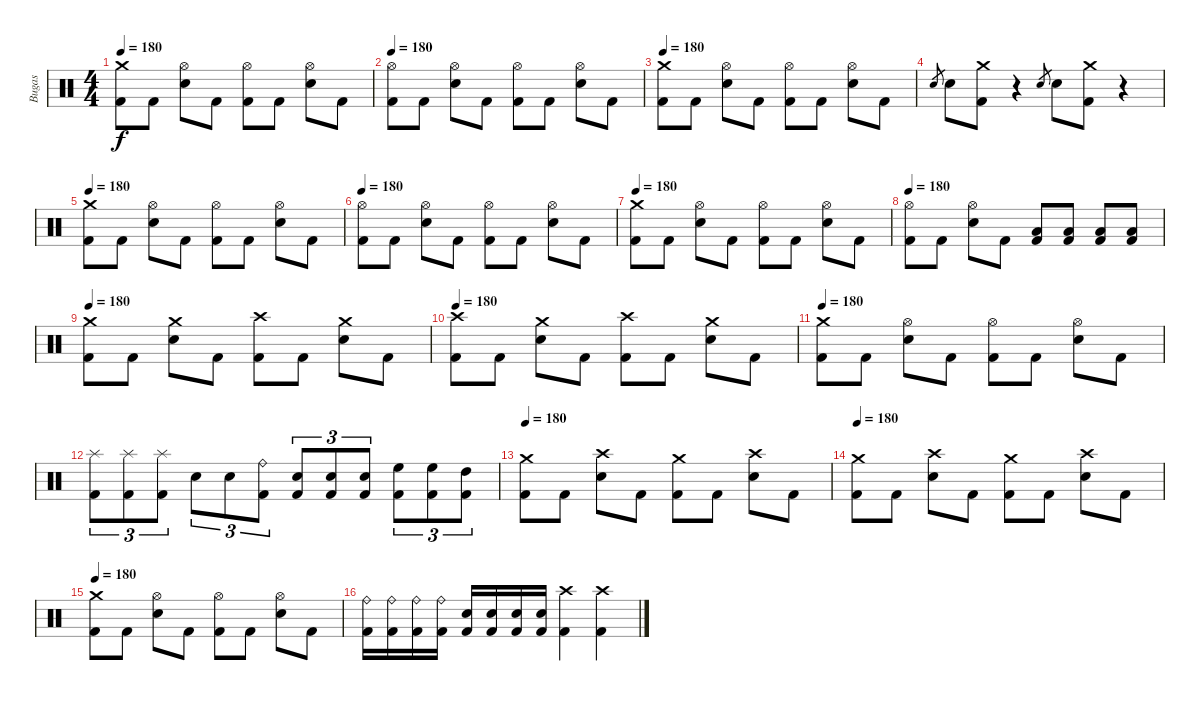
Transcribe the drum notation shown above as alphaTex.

\track ("Bugas" "Bugas") {instrument percussion}
\staff {score}
\articulation defaults
\ts (4 4)
\tempo 180
\clef neutral
\ks c
("Crash medium (hit)" "Kick (hit) 2").8{dy f} "Kick (hit) 2".8 ("Hi-Hat (open)" "Electric Snare (hit)").8 "Kick (hit) 2".8 ("Hi-Hat (open)" "Kick (hit) 2").8 "Kick (hit) 2".8 ("Hi-Hat (open)" "Electric Snare (hit)").8 "Kick (hit) 2".8 |
\tempo 180
("Hi-Hat (open)" "Kick (hit) 2").8 "Kick (hit) 2".8 ("Hi-Hat (open)" "Electric Snare (hit)").8 "Kick (hit) 2".8 ("Hi-Hat (open)" "Kick (hit) 2").8 "Kick (hit) 2".8 ("Hi-Hat (open)" "Electric Snare (hit)").8 "Kick (hit) 2".8 |
\tempo 180
("Crash medium (hit)" "Kick (hit) 2").8 "Kick (hit) 2".8 ("Hi-Hat (open)" "Electric Snare (hit)").8 "Kick (hit) 2".8 ("Hi-Hat (open)" "Kick (hit) 2").8 "Kick (hit) 2".8 ("Hi-Hat (open)" "Electric Snare (hit)").8 "Kick (hit) 2".8 |
"Electric Snare (hit)".8{gr} "Electric Snare (hit)".8 ("Crash medium (hit)" "Kick (hit) 2").8 r.4 "Electric Snare (hit)".8{gr} "Electric Snare (hit)".8 ("Crash medium (hit)" "Kick (hit) 2").8 r.4 |
\tempo 180
("Crash medium (hit)" "Kick (hit) 2").8 "Kick (hit) 2".8 ("Hi-Hat (open)" "Electric Snare (hit)").8 "Kick (hit) 2".8 ("Hi-Hat (open)" "Kick (hit) 2").8 "Kick (hit) 2".8 ("Hi-Hat (open)" "Electric Snare (hit)").8 "Kick (hit) 2".8 |
\tempo 180
("Hi-Hat (open)" "Kick (hit) 2").8 "Kick (hit) 2".8 ("Hi-Hat (open)" "Electric Snare (hit)").8 "Kick (hit) 2".8 ("Hi-Hat (open)" "Kick (hit) 2").8 "Kick (hit) 2".8 ("Hi-Hat (open)" "Electric Snare (hit)").8 "Kick (hit) 2".8 |
\tempo 180
("Crash medium (hit)" "Kick (hit) 2").8 "Kick (hit) 2".8 ("Hi-Hat (open)" "Electric Snare (hit)").8 "Kick (hit) 2".8 ("Hi-Hat (open)" "Kick (hit) 2").8 "Kick (hit) 2".8 ("Hi-Hat (open)" "Electric Snare (hit)").8 "Kick (hit) 2".8 |
\tempo 180
("Hi-Hat (open)" "Kick (hit) 2").8 "Kick (hit) 2".8 ("Hi-Hat (open)" "Electric Snare (hit)").8 "Kick (hit) 2".8 ("Low Tom (hit)" "Kick (hit) 2").8 ("Low Tom (hit)" "Kick (hit) 2").8 ("Low Tom (hit)" "Kick (hit) 2").8 ("Low Tom (hit)" "Kick (hit) 2").8 |
\tempo 180
("Crash medium (hit)" "Kick (hit) 2").8 "Kick (hit) 2".8 ("Crash medium (hit)" "Electric Snare (hit)").8 "Kick (hit) 2".8 ("Crash high (hit)" "Kick (hit) 2").8 "Kick (hit) 2".8 ("Crash medium (hit)" "Electric Snare (hit)").8 "Kick (hit) 2".8 |
\tempo 180
("Crash high (hit)" "Kick (hit) 2").8 "Kick (hit) 2".8 ("Crash medium (hit)" "Electric Snare (hit)").8 "Kick (hit) 2".8 ("Crash high (hit)" "Kick (hit) 2").8 "Kick (hit) 2".8 ("Crash medium (hit)" "Electric Snare (hit)").8 "Kick (hit) 2".8 |
\tempo 180
("Crash medium (hit)" "Kick (hit) 2").8 "Kick (hit) 2".8 ("Hi-Hat (open)" "Electric Snare (hit)").8 "Kick (hit) 2".8 ("Hi-Hat (open)" "Kick (hit) 2").8 "Kick (hit) 2".8 ("Hi-Hat (open)" "Electric Snare (hit)").8 "Kick (hit) 2".8 |
("Splash (hit)" "Kick (hit) 2").8{tu (3 2)} ("Splash (hit)" "Kick (hit) 2").8{tu (3 2)} ("Splash (hit)" "Kick (hit) 2").8{tu (3 2)} "Electric Snare (hit)".8{tu (3 2)} "Electric Snare (hit)".8{tu (3 2)} ("Ride (bell)" "Kick (hit) 2").8{tu (3 2)} ("Electric Snare (hit)" "Kick (hit) 2").8{tu (3 2)} ("Electric Snare (hit)" "Kick (hit) 2").8{tu (3 2)} ("Electric Snare (hit)" "Kick (hit) 2").8{tu (3 2)} ("High Floor Tom (hit)" "Kick (hit) 2").8{tu (3 2)} ("High Floor Tom (hit)" "Kick (hit) 2").8{tu (3 2)} ("High Tom (hit)" "Kick (hit) 2").8{tu (3 2)} |
\tempo 180
("Crash medium (hit)" "Kick (hit) 2").8 "Kick (hit) 2".8 ("Crash high (hit)" "Electric Snare (hit)").8 "Kick (hit) 2".8 ("Crash medium (hit)" "Kick (hit) 2").8 "Kick (hit) 2".8 ("Crash high (hit)" "Electric Snare (hit)").8 "Kick (hit) 2".8 |
\tempo 180
("Crash medium (hit)" "Kick (hit) 2").8 "Kick (hit) 2".8 ("Crash high (hit)" "Electric Snare (hit)").8 "Kick (hit) 2".8 ("Crash medium (hit)" "Kick (hit) 2").8 "Kick (hit) 2".8 ("Crash high (hit)" "Electric Snare (hit)").8 "Kick (hit) 2".8 |
\tempo 180
("Crash medium (hit)" "Kick (hit) 2").8 "Kick (hit) 2".8 ("Hi-Hat (open)" "Electric Snare (hit)").8 "Kick (hit) 2".8 ("Hi-Hat (open)" "Kick (hit) 2").8 "Kick (hit) 2".8 ("Hi-Hat (open)" "Electric Snare (hit)").8 "Kick (hit) 2".8 |
("Ride (bell)" "Kick (hit) 2").16 ("Ride (bell)" "Kick (hit) 2").16 ("Ride (bell)" "Kick (hit) 2").16 ("Ride (bell)" "Kick (hit) 2").16 ("Electric Snare (hit)" "Kick (hit) 2").16 ("Electric Snare (hit)" "Kick (hit) 2").16 ("Electric Snare (hit)" "Kick (hit) 2").16 ("Electric Snare (hit)" "Kick (hit) 2").16 ("Crash high (hit)" "Kick (hit) 2").4 ("Crash high (hit)" "Kick (hit) 2").4
